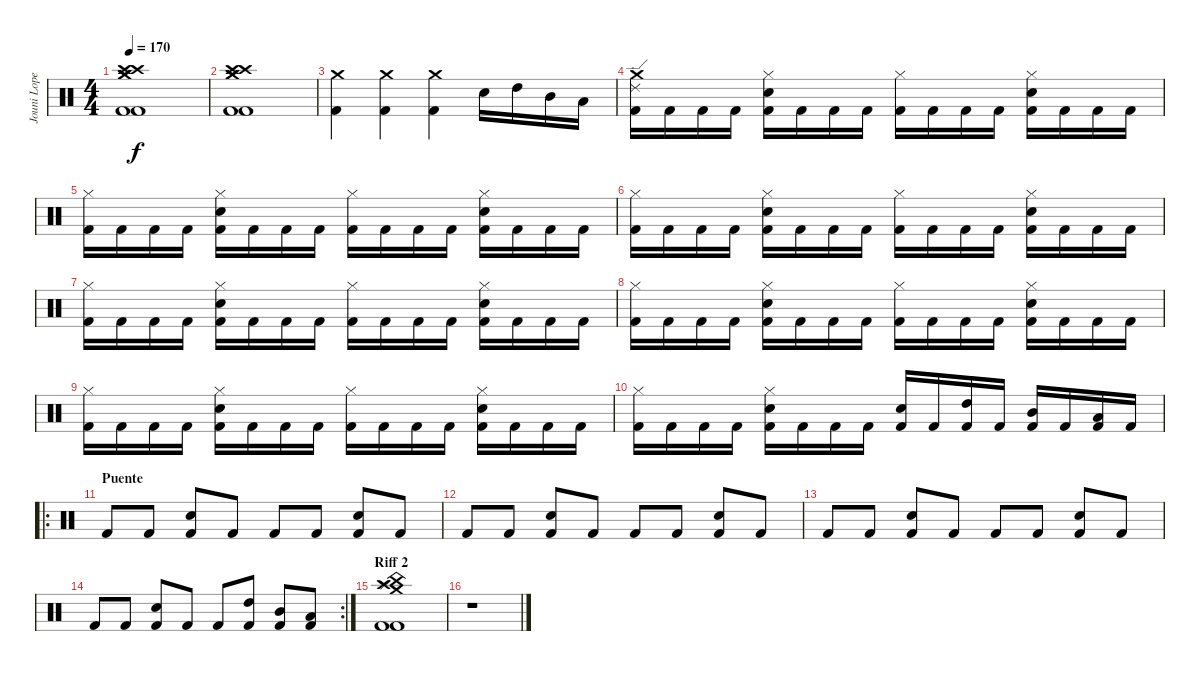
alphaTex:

\track ("Jouni Lopez (Bateria) 17 años" "Jouni Lope") {instrument percussion}
\staff {score}
\articulation defaults
\ts (4 4)
\tempo 170
\clef neutral
\ks c
("Crash high (hit)" "Crash medium (hit)" "Crash medium (hit)" "Crash high (hit)" "Kick (hit) 2" "Kick (hit) 2").1{dy f} |
("Crash high (hit)" "Crash medium (hit)" "Crash medium (hit)" "Crash high (hit)" "Kick (hit) 2" "Kick (hit) 2").1 |
("Crash medium (hit)" "Kick (hit) 2").4 ("Crash medium (hit)" "Kick (hit) 2").4 ("Crash medium (hit)" "Kick (hit) 2").4 "Snare (hit) 2".16 "High Tom (hit)".16 "Mid Tom (hit)".16 "Low Tom (hit)".16 |
("Kick (hit) 2" "Crash medium (hit)" "Ride (edge) 2").16 "Kick (hit) 2".16 "Kick (hit) 2".16 "Kick (hit) 2".16 ("Kick (hit) 2" "Snare (hit) 2" "Hi-Hat (closed)").16 "Kick (hit) 2".16 "Kick (hit) 2".16 "Kick (hit) 2".16 ("Kick (hit) 2" "Hi-Hat (closed)").16 "Kick (hit) 2".16 "Kick (hit) 2".16 "Kick (hit) 2".16 ("Kick (hit) 2" "Snare (hit) 2" "Hi-Hat (closed)").16 "Kick (hit) 2".16 "Kick (hit) 2".16 "Kick (hit) 2".16 |
("Kick (hit) 2" "Hi-Hat (closed)").16 "Kick (hit) 2".16 "Kick (hit) 2".16 "Kick (hit) 2".16 ("Kick (hit) 2" "Snare (hit) 2" "Hi-Hat (closed)").16 "Kick (hit) 2".16 "Kick (hit) 2".16 "Kick (hit) 2".16 ("Kick (hit) 2" "Hi-Hat (closed)").16 "Kick (hit) 2".16 "Kick (hit) 2".16 "Kick (hit) 2".16 ("Kick (hit) 2" "Snare (hit) 2" "Hi-Hat (closed)").16 "Kick (hit) 2".16 "Kick (hit) 2".16 "Kick (hit) 2".16 |
("Kick (hit) 2" "Hi-Hat (closed)").16 "Kick (hit) 2".16 "Kick (hit) 2".16 "Kick (hit) 2".16 ("Kick (hit) 2" "Snare (hit) 2" "Hi-Hat (closed)").16 "Kick (hit) 2".16 "Kick (hit) 2".16 "Kick (hit) 2".16 ("Kick (hit) 2" "Hi-Hat (closed)").16 "Kick (hit) 2".16 "Kick (hit) 2".16 "Kick (hit) 2".16 ("Kick (hit) 2" "Snare (hit) 2" "Hi-Hat (closed)").16 "Kick (hit) 2".16 "Kick (hit) 2".16 "Kick (hit) 2".16 |
("Kick (hit) 2" "Hi-Hat (closed)").16 "Kick (hit) 2".16 "Kick (hit) 2".16 "Kick (hit) 2".16 ("Kick (hit) 2" "Snare (hit) 2" "Hi-Hat (closed)").16 "Kick (hit) 2".16 "Kick (hit) 2".16 "Kick (hit) 2".16 ("Kick (hit) 2" "Hi-Hat (closed)").16 "Kick (hit) 2".16 "Kick (hit) 2".16 "Kick (hit) 2".16 ("Kick (hit) 2" "Snare (hit) 2" "Hi-Hat (closed)").16 "Kick (hit) 2".16 "Kick (hit) 2".16 "Kick (hit) 2".16 |
("Kick (hit) 2" "Hi-Hat (closed)").16 "Kick (hit) 2".16 "Kick (hit) 2".16 "Kick (hit) 2".16 ("Kick (hit) 2" "Snare (hit) 2" "Hi-Hat (closed)").16 "Kick (hit) 2".16 "Kick (hit) 2".16 "Kick (hit) 2".16 ("Kick (hit) 2" "Hi-Hat (closed)").16 "Kick (hit) 2".16 "Kick (hit) 2".16 "Kick (hit) 2".16 ("Kick (hit) 2" "Snare (hit) 2" "Hi-Hat (closed)").16 "Kick (hit) 2".16 "Kick (hit) 2".16 "Kick (hit) 2".16 |
("Kick (hit) 2" "Hi-Hat (closed)").16 "Kick (hit) 2".16 "Kick (hit) 2".16 "Kick (hit) 2".16 ("Kick (hit) 2" "Snare (hit) 2" "Hi-Hat (closed)").16 "Kick (hit) 2".16 "Kick (hit) 2".16 "Kick (hit) 2".16 ("Kick (hit) 2" "Hi-Hat (closed)").16 "Kick (hit) 2".16 "Kick (hit) 2".16 "Kick (hit) 2".16 ("Kick (hit) 2" "Snare (hit) 2" "Hi-Hat (closed)").16 "Kick (hit) 2".16 "Kick (hit) 2".16 "Kick (hit) 2".16 |
("Kick (hit) 2" "Hi-Hat (closed)").16 "Kick (hit) 2".16 "Kick (hit) 2".16 "Kick (hit) 2".16 ("Kick (hit) 2" "Snare (hit) 2" "Hi-Hat (closed)").16 "Kick (hit) 2".16 "Kick (hit) 2".16 "Kick (hit) 2".16 ("Kick (hit) 2" "Snare (hit) 2").16 "Kick (hit) 2".16 ("Kick (hit) 2" "High Tom (hit)").16 "Kick (hit) 2".16 ("Kick (hit) 2" "Mid Tom (hit)").16 "Kick (hit) 2".16 ("Kick (hit) 2" "Low Tom (hit)").16 "Kick (hit) 2".16 |
\ro
\section ("" "Puente")
"Kick (hit) 2".8 "Kick (hit) 2".8 ("Kick (hit) 2" "Snare (hit) 2").8 "Kick (hit) 2".8 "Kick (hit) 2".8 "Kick (hit) 2".8 ("Kick (hit) 2" "Snare (hit) 2").8 "Kick (hit) 2".8 |
"Kick (hit) 2".8 "Kick (hit) 2".8 ("Kick (hit) 2" "Snare (hit) 2").8 "Kick (hit) 2".8 "Kick (hit) 2".8 "Kick (hit) 2".8 ("Kick (hit) 2" "Snare (hit) 2").8 "Kick (hit) 2".8 |
"Kick (hit) 2".8 "Kick (hit) 2".8 ("Kick (hit) 2" "Snare (hit) 2").8 "Kick (hit) 2".8 "Kick (hit) 2".8 "Kick (hit) 2".8 ("Kick (hit) 2" "Snare (hit) 2").8 "Kick (hit) 2".8 |
\rc 2 "Kick (hit) 2".8 "Kick (hit) 2".8
("Kick (hit) 2" "Snare (hit) 2").8 "Kick (hit) 2".8 "Kick (hit) 2".8 ("Kick (hit) 2" "High Tom (hit)").8 ("Kick (hit) 2" "Mid Tom (hit)").8 ("Kick (hit) 2" "Low Tom (hit)").8 |
\section ("" "Riff 2")
("Kick (hit) 2" "Kick (hit) 2" "Splash (hit)" "China (hit)" "Crash medium (hit)" "Crash high (hit)").1 |
r.1
